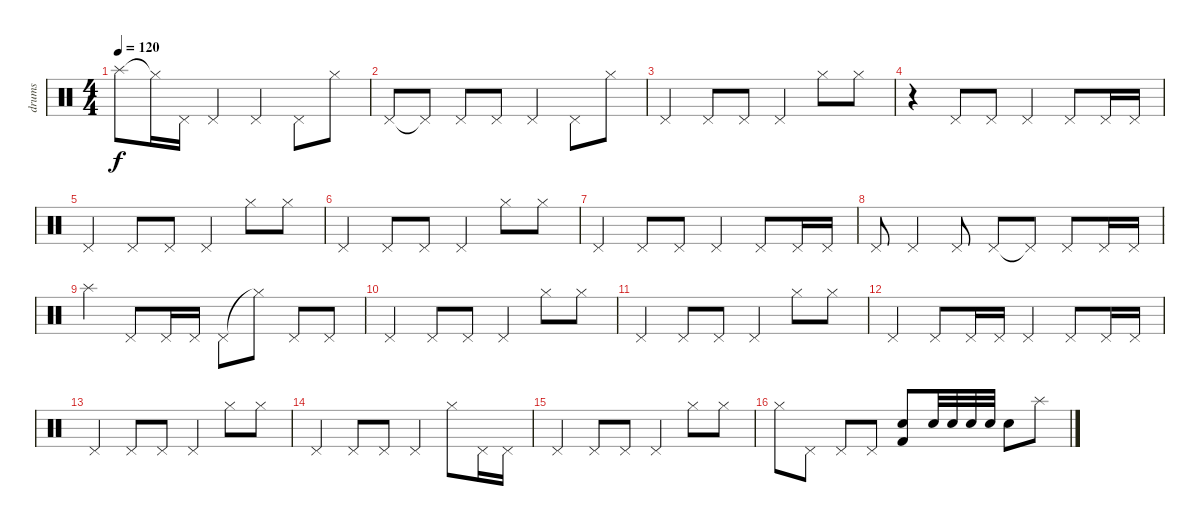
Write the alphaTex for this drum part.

\track ("drums" "drums") {instrument percussion}
\staff {score}
\articulation defaults
\ts (4 4)
\tempo 120
\clef neutral
\ks c "Splash (hit)".8{dy f} "Hi-Hat (closed)"{t}.16 "Pedal Hi-Hat (hit)".16 "Pedal Hi-Hat (hit)".4 "Pedal Hi-Hat (hit)".4 "Pedal Hi-Hat (hit)".8 "Hi-Hat (closed)".8
|
"Pedal Hi-Hat (hit)".8 "Pedal Hi-Hat (hit)"{t}.8 "Pedal Hi-Hat (hit)".8 "Pedal Hi-Hat (hit)".8 "Pedal Hi-Hat (hit)".4 "Pedal Hi-Hat (hit)".8 "Hi-Hat (closed)".8 |
"Pedal Hi-Hat (hit)".4 "Pedal Hi-Hat (hit)".8 "Pedal Hi-Hat (hit)".8 "Pedal Hi-Hat (hit)".4 "Hi-Hat (closed)".8 "Hi-Hat (closed)".8 |
r.4 "Pedal Hi-Hat (hit)".8 "Pedal Hi-Hat (hit)".8 "Pedal Hi-Hat (hit)".4 "Pedal Hi-Hat (hit)".8 "Pedal Hi-Hat (hit)".16 "Pedal Hi-Hat (hit)".16 |
"Pedal Hi-Hat (hit)".4 "Pedal Hi-Hat (hit)".8 "Pedal Hi-Hat (hit)".8 "Pedal Hi-Hat (hit)".4 "Hi-Hat (closed)".8 "Hi-Hat (closed)".8 |
"Pedal Hi-Hat (hit)".4 "Pedal Hi-Hat (hit)".8 "Pedal Hi-Hat (hit)".8 "Pedal Hi-Hat (hit)".4 "Hi-Hat (closed)".8 "Hi-Hat (closed)".8 |
"Pedal Hi-Hat (hit)".4 "Pedal Hi-Hat (hit)".8 "Pedal Hi-Hat (hit)".8 "Pedal Hi-Hat (hit)".4 "Pedal Hi-Hat (hit)".8 "Pedal Hi-Hat (hit)".16 "Pedal Hi-Hat (hit)".16 |
"Pedal Hi-Hat (hit)".8 "Pedal Hi-Hat (hit)".4 "Pedal Hi-Hat (hit)".8 "Pedal Hi-Hat (hit)".8 "Pedal Hi-Hat (hit)"{t}.8 "Pedal Hi-Hat (hit)".8 "Pedal Hi-Hat (hit)".16 "Pedal Hi-Hat (hit)".16 |
"Splash (hit)".4 "Pedal Hi-Hat (hit)".8 "Pedal Hi-Hat (hit)".16 "Pedal Hi-Hat (hit)".16 "Pedal Hi-Hat (hit)".8 "Hi-Hat (closed)"{t}.8 "Pedal Hi-Hat (hit)".8 "Pedal Hi-Hat (hit)".8 |
"Pedal Hi-Hat (hit)".4 "Pedal Hi-Hat (hit)".8 "Pedal Hi-Hat (hit)".8 "Pedal Hi-Hat (hit)".4 "Hi-Hat (closed)".8 "Hi-Hat (closed)".8 |
"Pedal Hi-Hat (hit)".4 "Pedal Hi-Hat (hit)".8 "Pedal Hi-Hat (hit)".8 "Pedal Hi-Hat (hit)".4 "Hi-Hat (closed)".8 "Hi-Hat (closed)".8 |
"Pedal Hi-Hat (hit)".4 "Pedal Hi-Hat (hit)".8 "Pedal Hi-Hat (hit)".16 "Pedal Hi-Hat (hit)".16 "Pedal Hi-Hat (hit)".4 "Pedal Hi-Hat (hit)".8 "Pedal Hi-Hat (hit)".16 "Pedal Hi-Hat (hit)".16 |
"Pedal Hi-Hat (hit)".4 "Pedal Hi-Hat (hit)".8 "Pedal Hi-Hat (hit)".8 "Pedal Hi-Hat (hit)".4 "Hi-Hat (closed)".8 "Hi-Hat (closed)".8 |
"Pedal Hi-Hat (hit)".4 "Pedal Hi-Hat (hit)".8 "Pedal Hi-Hat (hit)".8 "Pedal Hi-Hat (hit)".4 "Hi-Hat (closed)".8 "Pedal Hi-Hat (hit)".16 "Pedal Hi-Hat (hit)".16 |
"Pedal Hi-Hat (hit)".4 "Pedal Hi-Hat (hit)".8 "Pedal Hi-Hat (hit)".8 "Pedal Hi-Hat (hit)".4 "Hi-Hat (closed)".8 "Hi-Hat (closed)".8 |
"Hi-Hat (closed)".8 "Pedal Hi-Hat (hit)".8 "Pedal Hi-Hat (hit)".8 "Pedal Hi-Hat (hit)".8 ("Electric Snare (hit)" "Kick (hit) 2").8 "Snare (hit) 2".32{volume 7} "Snare (hit) 2".32 "Snare (hit) 2".32 "Snare (hit) 2".32 "Electric Snare (hit)".8{volume 16} "Splash (hit)".8
